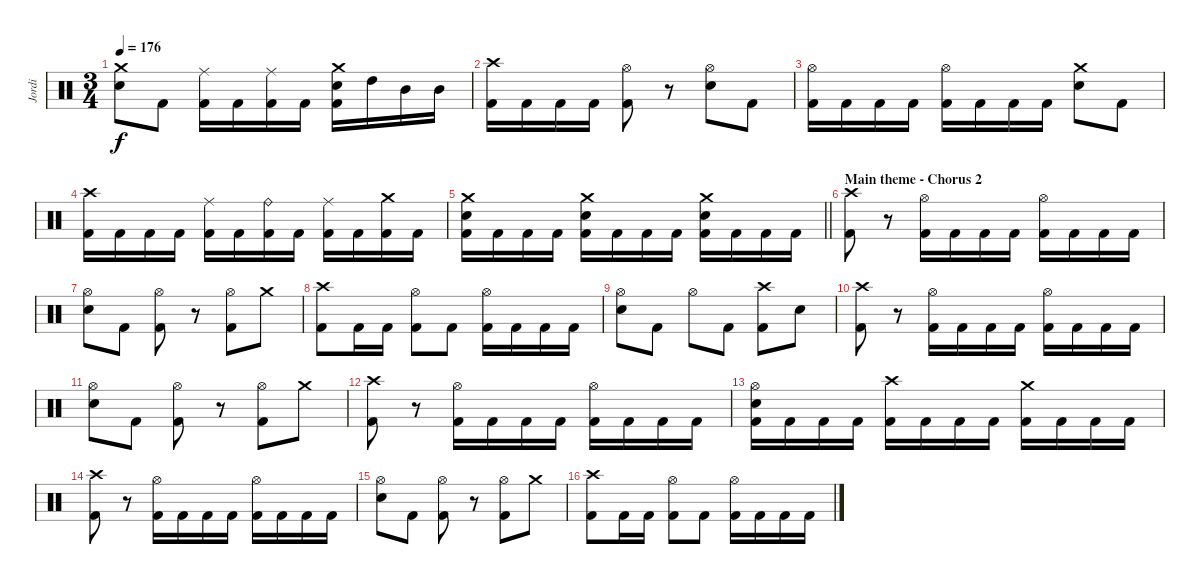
\track ("Jordi" "Jordi") {instrument percussion}
\staff {score}
\articulation defaults
\ts (3 4)
\tempo 176
\clef neutral
\ks c
("Crash medium (hit)" "Snare (hit) 2").8{dy f} "Kick (hit) 2".8 ("Ride (middle)" "Kick (hit) 2").16 "Kick (hit) 2".16 ("Ride (middle)" "Kick (hit) 2").16 "Kick (hit) 2".16 ("Crash medium (hit)" "Snare (hit) 2" "Kick (hit) 2").16 "High Tom (hit)".16 "Mid Tom (hit)".16 "Mid Tom (hit)".16 |
("Crash high (hit)" "Kick (hit) 2").16 "Kick (hit) 2".16 "Kick (hit) 2".16 "Kick (hit) 2".16 ("Hi-Hat (open)" "Kick (hit) 2").8 r.8 ("Hi-Hat (open)" "Snare (hit) 2").8 "Kick (hit) 2".8 |
("Hi-Hat (open)" "Kick (hit) 2").16 "Kick (hit) 2".16 "Kick (hit) 2".16 "Kick (hit) 2".16 ("Hi-Hat (open)" "Kick (hit) 2").16 "Kick (hit) 2".16 "Kick (hit) 2".16 "Kick (hit) 2".16 ("Crash medium (hit)" "Snare (hit) 2").8 "Kick (hit) 2".8 |
("Crash high (hit)" "Kick (hit) 2").16 "Kick (hit) 2".16 "Kick (hit) 2".16 "Kick (hit) 2".16 ("Ride (middle)" "Kick (hit) 2").16 "Kick (hit) 2".16 ("Ride (bell)" "Kick (hit) 2").16 "Kick (hit) 2".16 ("Ride (middle)" "Kick (hit) 2").16 "Kick (hit) 2".16 ("Crash medium (hit)" "Kick (hit) 2").16 "Kick (hit) 2".16 |
\barLineRight lightlight
("Crash medium (hit)" "Snare (hit) 2" "Kick (hit) 2").16 "Kick (hit) 2".16 "Kick (hit) 2".16 "Kick (hit) 2".16 ("Crash medium (hit)" "Snare (hit) 2" "Kick (hit) 2").16 "Kick (hit) 2".16 "Kick (hit) 2".16 "Kick (hit) 2".16 ("Crash medium (hit)" "Snare (hit) 2" "Kick (hit) 2").16 "Kick (hit) 2".16 "Kick (hit) 2".16 "Kick (hit) 2".16 |
\section ("" "Main theme - Chorus 2")
("Crash high (hit)" "Kick (hit) 2").8 r.8 ("Hi-Hat (open)" "Kick (hit) 2").16 "Kick (hit) 2".16 "Kick (hit) 2".16 "Kick (hit) 2".16 ("Hi-Hat (open)" "Kick (hit) 2").16 "Kick (hit) 2".16 "Kick (hit) 2".16 "Kick (hit) 2".16 |
("Hi-Hat (open)" "Snare (hit) 2").8 "Kick (hit) 2".8 ("Hi-Hat (open)" "Kick (hit) 2").8 r.8 ("Hi-Hat (open)" "Kick (hit) 2").8 "Crash medium (hit)".8 |
("Crash high (hit)" "Kick (hit) 2").8 "Kick (hit) 2".16 "Kick (hit) 2".16 ("Hi-Hat (open)" "Kick (hit) 2").8 "Kick (hit) 2".8 ("Hi-Hat (open)" "Kick (hit) 2").16 "Kick (hit) 2".16 "Kick (hit) 2".16 "Kick (hit) 2".16 |
("Hi-Hat (open)" "Snare (hit) 2").8 "Kick (hit) 2".8 "Hi-Hat (open)".8 "Kick (hit) 2".8 ("Crash high (hit)" "Kick (hit) 2").8 "Snare (hit) 2".8 |
("Crash high (hit)" "Kick (hit) 2").8 r.8 ("Hi-Hat (open)" "Kick (hit) 2").16 "Kick (hit) 2".16 "Kick (hit) 2".16 "Kick (hit) 2".16 ("Hi-Hat (open)" "Kick (hit) 2").16 "Kick (hit) 2".16 "Kick (hit) 2".16 "Kick (hit) 2".16 |
("Hi-Hat (open)" "Snare (hit) 2").8 "Kick (hit) 2".8 ("Hi-Hat (open)" "Kick (hit) 2").8 r.8 ("Hi-Hat (open)" "Kick (hit) 2").8 "Crash medium (hit)".8 |
("Crash high (hit)" "Kick (hit) 2").8 r.8 ("Hi-Hat (open)" "Kick (hit) 2").16 "Kick (hit) 2".16 "Kick (hit) 2".16 "Kick (hit) 2".16 ("Hi-Hat (open)" "Kick (hit) 2").16 "Kick (hit) 2".16 "Kick (hit) 2".16 "Kick (hit) 2".16 |
("Hi-Hat (open)" "Snare (hit) 2" "Kick (hit) 2").16 "Kick (hit) 2".16 "Kick (hit) 2".16 "Kick (hit) 2".16 ("Crash high (hit)" "Kick (hit) 2").16 "Kick (hit) 2".16 "Kick (hit) 2".16 "Kick (hit) 2".16 ("Crash medium (hit)" "Kick (hit) 2").16 "Kick (hit) 2".16 "Kick (hit) 2".16 "Kick (hit) 2".16 |
("Crash high (hit)" "Kick (hit) 2").8 r.8 ("Hi-Hat (open)" "Kick (hit) 2").16 "Kick (hit) 2".16 "Kick (hit) 2".16 "Kick (hit) 2".16 ("Hi-Hat (open)" "Kick (hit) 2").16 "Kick (hit) 2".16 "Kick (hit) 2".16 "Kick (hit) 2".16 |
("Hi-Hat (open)" "Snare (hit) 2").8 "Kick (hit) 2".8 ("Hi-Hat (open)" "Kick (hit) 2").8 r.8 ("Hi-Hat (open)" "Kick (hit) 2").8 "Crash medium (hit)".8 |
("Crash high (hit)" "Kick (hit) 2").8 "Kick (hit) 2".16 "Kick (hit) 2".16 ("Hi-Hat (open)" "Kick (hit) 2").8 "Kick (hit) 2".8 ("Hi-Hat (open)" "Kick (hit) 2").16 "Kick (hit) 2".16 "Kick (hit) 2".16 "Kick (hit) 2".16
